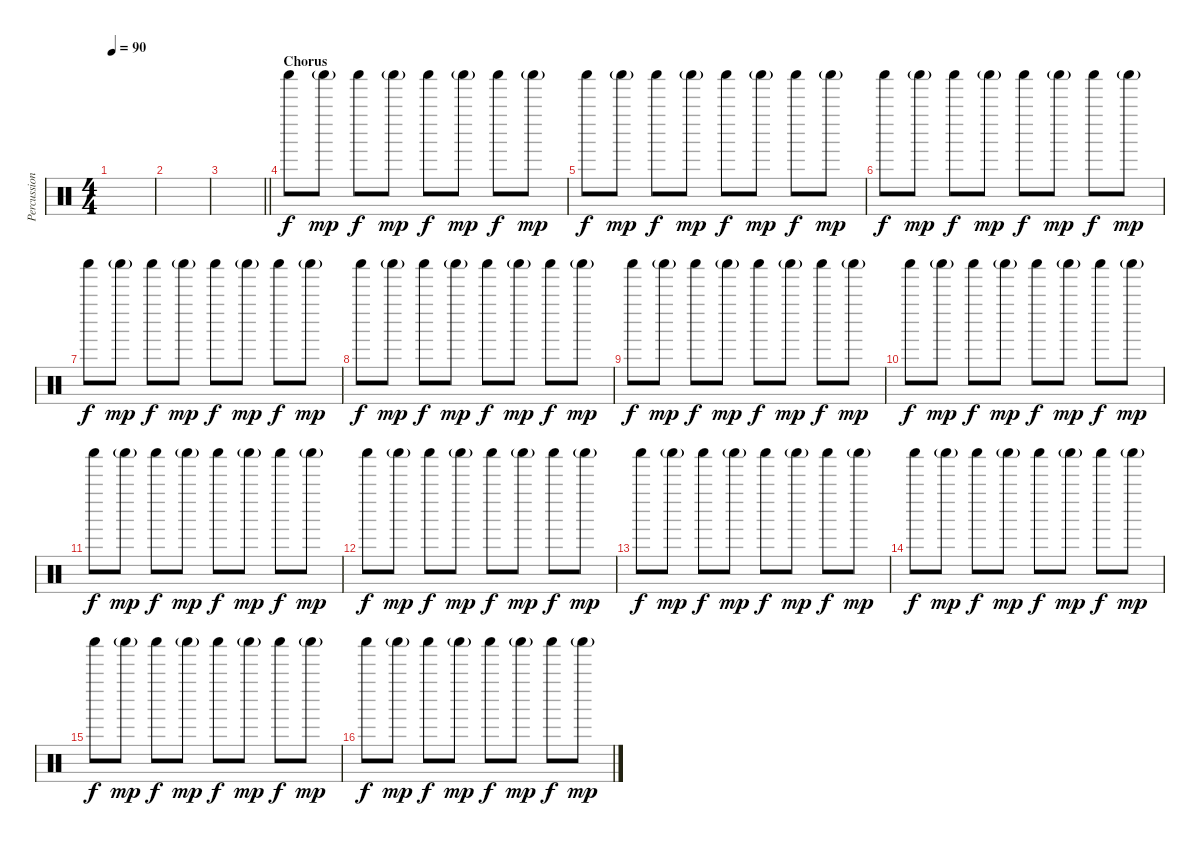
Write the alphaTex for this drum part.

\track ("Percussion 2" "Percussion") {instrument percussion}
\staff {score}
\articulation defaults
\ts (4 4)
\tempo 90
\clef neutral
\ks c
|
|
\barLineRight lightlight
|
\section ("" "Chorus")
"Shaker (hit)".8{dy f} "Shaker (hit)"{g}.8{dy mp} "Shaker (hit)".8{dy f} "Shaker (hit)"{g}.8{dy mp} "Shaker (hit)".8{dy f} "Shaker (hit)"{g}.8{dy mp} "Shaker (hit)".8{dy f} "Shaker (hit)"{g}.8{dy mp} |
"Shaker (hit)".8{dy f} "Shaker (hit)"{g}.8{dy mp} "Shaker (hit)".8{dy f} "Shaker (hit)"{g}.8{dy mp} "Shaker (hit)".8{dy f} "Shaker (hit)"{g}.8{dy mp} "Shaker (hit)".8{dy f} "Shaker (hit)"{g}.8{dy mp} |
"Shaker (hit)".8{dy f} "Shaker (hit)"{g}.8{dy mp} "Shaker (hit)".8{dy f} "Shaker (hit)"{g}.8{dy mp} "Shaker (hit)".8{dy f} "Shaker (hit)"{g}.8{dy mp} "Shaker (hit)".8{dy f} "Shaker (hit)"{g}.8{dy mp} |
"Shaker (hit)".8{dy f} "Shaker (hit)"{g}.8{dy mp} "Shaker (hit)".8{dy f} "Shaker (hit)"{g}.8{dy mp} "Shaker (hit)".8{dy f} "Shaker (hit)"{g}.8{dy mp} "Shaker (hit)".8{dy f} "Shaker (hit)"{g}.8{dy mp} |
"Shaker (hit)".8{dy f} "Shaker (hit)"{g}.8{dy mp} "Shaker (hit)".8{dy f} "Shaker (hit)"{g}.8{dy mp} "Shaker (hit)".8{dy f} "Shaker (hit)"{g}.8{dy mp} "Shaker (hit)".8{dy f} "Shaker (hit)"{g}.8{dy mp} |
"Shaker (hit)".8{dy f} "Shaker (hit)"{g}.8{dy mp} "Shaker (hit)".8{dy f} "Shaker (hit)"{g}.8{dy mp} "Shaker (hit)".8{dy f} "Shaker (hit)"{g}.8{dy mp} "Shaker (hit)".8{dy f} "Shaker (hit)"{g}.8{dy mp} |
"Shaker (hit)".8{dy f} "Shaker (hit)"{g}.8{dy mp} "Shaker (hit)".8{dy f} "Shaker (hit)"{g}.8{dy mp} "Shaker (hit)".8{dy f} "Shaker (hit)"{g}.8{dy mp} "Shaker (hit)".8{dy f} "Shaker (hit)"{g}.8{dy mp} |
"Shaker (hit)".8{dy f} "Shaker (hit)"{g}.8{dy mp} "Shaker (hit)".8{dy f} "Shaker (hit)"{g}.8{dy mp} "Shaker (hit)".8{dy f} "Shaker (hit)"{g}.8{dy mp} "Shaker (hit)".8{dy f} "Shaker (hit)"{g}.8{dy mp} |
"Shaker (hit)".8{dy f} "Shaker (hit)"{g}.8{dy mp} "Shaker (hit)".8{dy f} "Shaker (hit)"{g}.8{dy mp} "Shaker (hit)".8{dy f} "Shaker (hit)"{g}.8{dy mp} "Shaker (hit)".8{dy f} "Shaker (hit)"{g}.8{dy mp} |
"Shaker (hit)".8{dy f} "Shaker (hit)"{g}.8{dy mp} "Shaker (hit)".8{dy f} "Shaker (hit)"{g}.8{dy mp} "Shaker (hit)".8{dy f} "Shaker (hit)"{g}.8{dy mp} "Shaker (hit)".8{dy f} "Shaker (hit)"{g}.8{dy mp} |
"Shaker (hit)".8{dy f} "Shaker (hit)"{g}.8{dy mp} "Shaker (hit)".8{dy f} "Shaker (hit)"{g}.8{dy mp} "Shaker (hit)".8{dy f} "Shaker (hit)"{g}.8{dy mp} "Shaker (hit)".8{dy f} "Shaker (hit)"{g}.8{dy mp} |
"Shaker (hit)".8{dy f} "Shaker (hit)"{g}.8{dy mp} "Shaker (hit)".8{dy f} "Shaker (hit)"{g}.8{dy mp} "Shaker (hit)".8{dy f} "Shaker (hit)"{g}.8{dy mp} "Shaker (hit)".8{dy f} "Shaker (hit)"{g}.8{dy mp} |
"Shaker (hit)".8{dy f} "Shaker (hit)"{g}.8{dy mp} "Shaker (hit)".8{dy f} "Shaker (hit)"{g}.8{dy mp} "Shaker (hit)".8{dy f} "Shaker (hit)"{g}.8{dy mp} "Shaker (hit)".8{dy f} "Shaker (hit)"{g}.8{dy mp}
